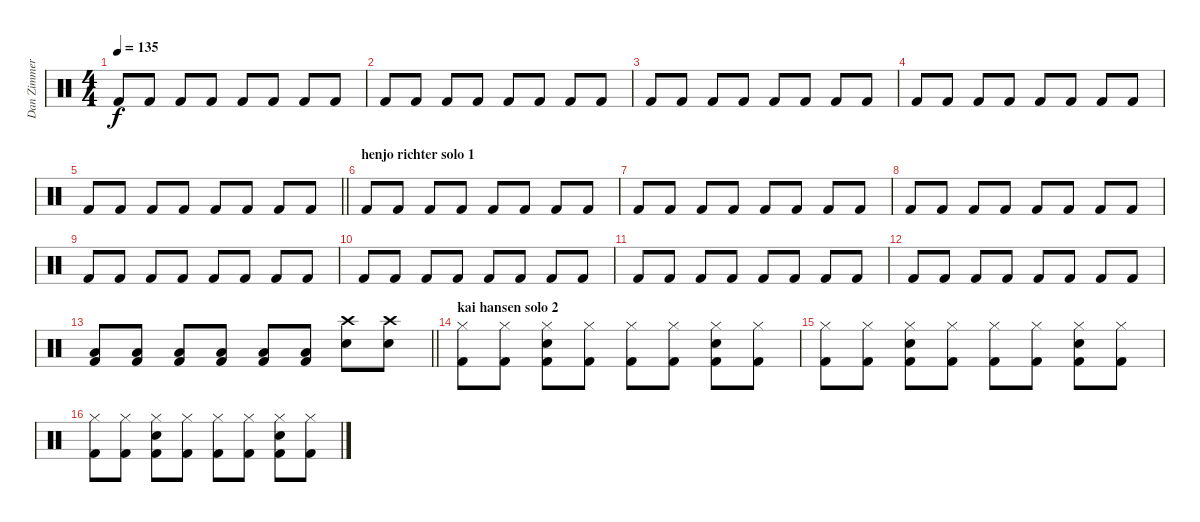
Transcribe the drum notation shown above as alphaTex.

\track ("Dan Zimmerman" "Dan Zimmer") {instrument percussion}
\staff {score}
\articulation defaults
\ts (4 4)
\tempo 135
\clef neutral
\ks c "Kick (hit) 2".8{dy f} "Kick (hit) 2".8 "Kick (hit) 2".8 "Kick (hit) 2".8 "Kick (hit) 2".8 "Kick (hit) 2".8 "Kick (hit) 2".8 "Kick (hit) 2".8
|
"Kick (hit) 2".8 "Kick (hit) 2".8 "Kick (hit) 2".8 "Kick (hit) 2".8 "Kick (hit) 2".8 "Kick (hit) 2".8 "Kick (hit) 2".8 "Kick (hit) 2".8 |
"Kick (hit) 2".8 "Kick (hit) 2".8 "Kick (hit) 2".8 "Kick (hit) 2".8 "Kick (hit) 2".8 "Kick (hit) 2".8 "Kick (hit) 2".8 "Kick (hit) 2".8 |
"Kick (hit) 2".8 "Kick (hit) 2".8 "Kick (hit) 2".8 "Kick (hit) 2".8 "Kick (hit) 2".8 "Kick (hit) 2".8 "Kick (hit) 2".8 "Kick (hit) 2".8 |
\barLineRight lightlight "Kick (hit) 2".8 "Kick (hit) 2".8 "Kick (hit) 2".8 "Kick (hit) 2".8 "Kick (hit) 2".8 "Kick (hit) 2".8 "Kick (hit) 2".8 "Kick (hit) 2".8
|
\section ("" "henjo richter solo 1")
"Kick (hit) 2".8 "Kick (hit) 2".8 "Kick (hit) 2".8 "Kick (hit) 2".8 "Kick (hit) 2".8 "Kick (hit) 2".8 "Kick (hit) 2".8 "Kick (hit) 2".8 |
"Kick (hit) 2".8 "Kick (hit) 2".8 "Kick (hit) 2".8 "Kick (hit) 2".8 "Kick (hit) 2".8 "Kick (hit) 2".8 "Kick (hit) 2".8 "Kick (hit) 2".8 |
"Kick (hit) 2".8 "Kick (hit) 2".8 "Kick (hit) 2".8 "Kick (hit) 2".8 "Kick (hit) 2".8 "Kick (hit) 2".8 "Kick (hit) 2".8 "Kick (hit) 2".8 |
"Kick (hit) 2".8 "Kick (hit) 2".8 "Kick (hit) 2".8 "Kick (hit) 2".8 "Kick (hit) 2".8 "Kick (hit) 2".8 "Kick (hit) 2".8 "Kick (hit) 2".8 |
"Kick (hit) 2".8 "Kick (hit) 2".8 "Kick (hit) 2".8 "Kick (hit) 2".8 "Kick (hit) 2".8 "Kick (hit) 2".8 "Kick (hit) 2".8 "Kick (hit) 2".8 |
"Kick (hit) 2".8 "Kick (hit) 2".8 "Kick (hit) 2".8 "Kick (hit) 2".8 "Kick (hit) 2".8 "Kick (hit) 2".8 "Kick (hit) 2".8 "Kick (hit) 2".8 |
"Kick (hit) 2".8 "Kick (hit) 2".8 "Kick (hit) 2".8 "Kick (hit) 2".8 "Kick (hit) 2".8 "Kick (hit) 2".8 "Kick (hit) 2".8 "Kick (hit) 2".8 |
\barLineRight lightlight
("Low Tom (hit)" "Kick (hit) 2").8 ("Low Tom (hit)" "Kick (hit) 2").8 ("Low Tom (hit)" "Kick (hit) 2").8 ("Low Tom (hit)" "Kick (hit) 2").8 ("Low Tom (hit)" "Kick (hit) 2").8 ("Low Tom (hit)" "Kick (hit) 2").8 ("Snare (hit) 2" "Crash high (hit)").8 ("Snare (hit) 2" "Crash high (hit)").8 |
\section ("" "kai hansen solo 2")
("Hi-Hat (closed)" "Kick (hit) 2").8 ("Hi-Hat (closed)" "Kick (hit) 2").8 ("Snare (hit) 2" "Hi-Hat (closed)" "Kick (hit) 2").8 ("Hi-Hat (closed)" "Kick (hit) 2").8 ("Hi-Hat (closed)" "Kick (hit) 2").8 ("Hi-Hat (closed)" "Kick (hit) 2").8 ("Snare (hit) 2" "Hi-Hat (closed)" "Kick (hit) 2").8 ("Hi-Hat (closed)" "Kick (hit) 2").8 |
("Hi-Hat (closed)" "Kick (hit) 2").8 ("Hi-Hat (closed)" "Kick (hit) 2").8 ("Snare (hit) 2" "Hi-Hat (closed)" "Kick (hit) 2").8 ("Hi-Hat (closed)" "Kick (hit) 2").8 ("Hi-Hat (closed)" "Kick (hit) 2").8 ("Hi-Hat (closed)" "Kick (hit) 2").8 ("Snare (hit) 2" "Hi-Hat (closed)" "Kick (hit) 2").8 ("Hi-Hat (closed)" "Kick (hit) 2").8 |
("Hi-Hat (closed)" "Kick (hit) 2").8 ("Hi-Hat (closed)" "Kick (hit) 2").8 ("Snare (hit) 2" "Hi-Hat (closed)" "Kick (hit) 2").8 ("Hi-Hat (closed)" "Kick (hit) 2").8 ("Hi-Hat (closed)" "Kick (hit) 2").8 ("Hi-Hat (closed)" "Kick (hit) 2").8 ("Snare (hit) 2" "Hi-Hat (closed)" "Kick (hit) 2").8 ("Hi-Hat (closed)" "Kick (hit) 2").8
